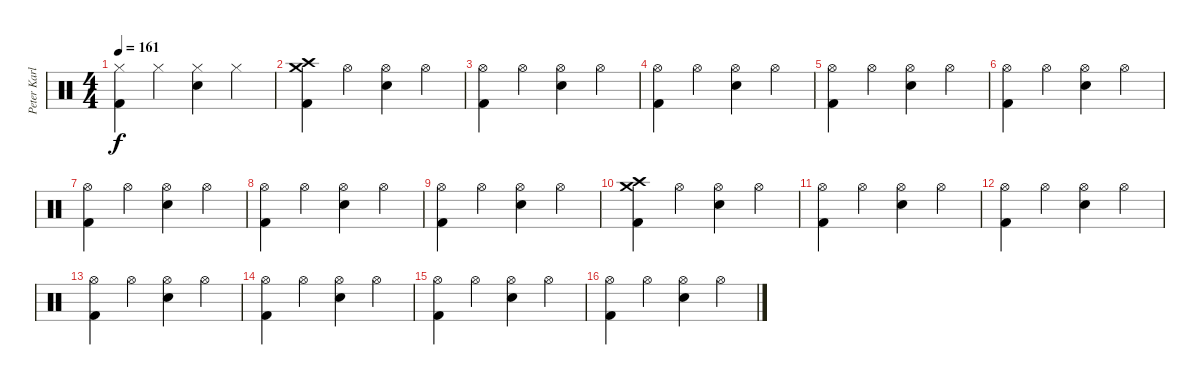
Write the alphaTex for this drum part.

\track ("Peter Karlsson" "Peter Karl") {instrument percussion}
\staff {score}
\articulation defaults
\ts (4 4)
\tempo 161
\clef neutral
\ks c
("Hi-Hat (closed)" "Kick (hit) 2").4{dy f} "Hi-Hat (closed)".4 ("Hi-Hat (closed)" "Snare (hit) 2").4 "Hi-Hat (closed)".4 |
("Crash high (hit)" "Crash medium (hit)" "Kick (hit) 2").4 "Hi-Hat (open)".4 ("Hi-Hat (open)" "Snare (hit) 2").4 "Hi-Hat (open)".4 |
("Hi-Hat (open)" "Kick (hit) 2").4 "Hi-Hat (open)".4 ("Hi-Hat (open)" "Snare (hit) 2").4 "Hi-Hat (open)".4 |
("Hi-Hat (open)" "Kick (hit) 2").4 "Hi-Hat (open)".4 ("Hi-Hat (open)" "Snare (hit) 2").4 "Hi-Hat (open)".4 |
("Hi-Hat (open)" "Kick (hit) 2").4 "Hi-Hat (open)".4 ("Hi-Hat (open)" "Snare (hit) 2").4 "Hi-Hat (open)".4 |
("Hi-Hat (open)" "Kick (hit) 2").4 "Hi-Hat (open)".4 ("Hi-Hat (open)" "Snare (hit) 2").4 "Hi-Hat (open)".4 |
("Hi-Hat (open)" "Kick (hit) 2").4 "Hi-Hat (open)".4 ("Hi-Hat (open)" "Snare (hit) 2").4 "Hi-Hat (open)".4 |
("Hi-Hat (open)" "Kick (hit) 2").4 "Hi-Hat (open)".4 ("Hi-Hat (open)" "Snare (hit) 2").4 "Hi-Hat (open)".4 |
("Hi-Hat (open)" "Kick (hit) 2").4 "Hi-Hat (open)".4 ("Hi-Hat (open)" "Snare (hit) 2").4 "Hi-Hat (open)".4 |
("Crash high (hit)" "Crash medium (hit)" "Kick (hit) 2").4 "Hi-Hat (open)".4 ("Hi-Hat (open)" "Snare (hit) 2").4 "Hi-Hat (open)".4 |
("Hi-Hat (open)" "Kick (hit) 2").4 "Hi-Hat (open)".4 ("Hi-Hat (open)" "Snare (hit) 2").4 "Hi-Hat (open)".4 |
("Hi-Hat (open)" "Kick (hit) 2").4 "Hi-Hat (open)".4 ("Hi-Hat (open)" "Snare (hit) 2").4 "Hi-Hat (open)".4 |
("Hi-Hat (open)" "Kick (hit) 2").4 "Hi-Hat (open)".4 ("Hi-Hat (open)" "Snare (hit) 2").4 "Hi-Hat (open)".4 |
("Hi-Hat (open)" "Kick (hit) 2").4 "Hi-Hat (open)".4 ("Hi-Hat (open)" "Snare (hit) 2").4 "Hi-Hat (open)".4 |
("Hi-Hat (open)" "Kick (hit) 2").4 "Hi-Hat (open)".4 ("Hi-Hat (open)" "Snare (hit) 2").4 "Hi-Hat (open)".4 |
("Hi-Hat (open)" "Kick (hit) 2").4 "Hi-Hat (open)".4 ("Hi-Hat (open)" "Snare (hit) 2").4 "Hi-Hat (open)".4
